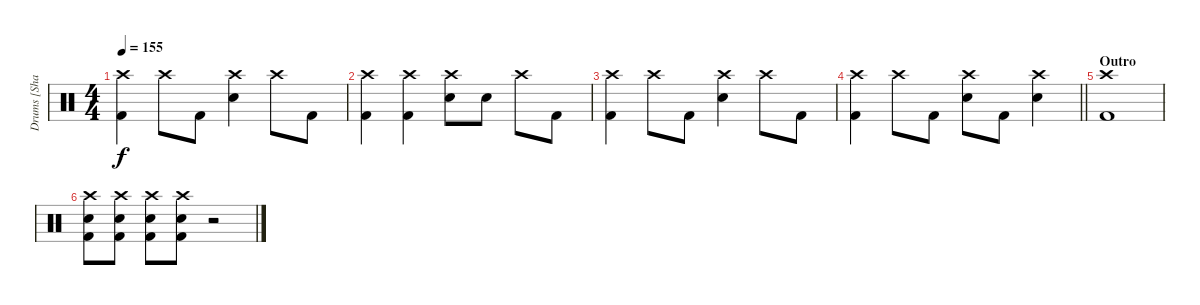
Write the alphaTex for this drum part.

\track ("Drums [Shannon Larkin]" "Drums [Sha") {instrument percussion}
\staff {score}
\articulation defaults
\ts (4 4)
\tempo 155
\clef neutral
\ks c
("Crash high (hit)" "Kick (hit) 2").4{dy f} "Crash high (hit)".8 "Kick (hit) 2".8 ("Crash high (hit)" "Electric Snare (hit)").4 "Crash high (hit)".8 "Kick (hit) 2".8 |
("Crash high (hit)" "Kick (hit) 2").4 ("Crash high (hit)" "Kick (hit) 2").4 ("Crash high (hit)" "Electric Snare (hit)").8 "Electric Snare (hit)".8 "Crash high (hit)".8 "Kick (hit) 2".8 |
("Crash high (hit)" "Kick (hit) 2").4 "Crash high (hit)".8 "Kick (hit) 2".8 ("Crash high (hit)" "Electric Snare (hit)").4 "Crash high (hit)".8 "Kick (hit) 2".8 |
\barLineRight lightlight
("Crash high (hit)" "Kick (hit) 2").4 "Crash high (hit)".8 "Kick (hit) 2".8 ("Crash high (hit)" "Electric Snare (hit)").8 "Kick (hit) 2".8 ("Crash high (hit)" "Electric Snare (hit)").4 |
\section ("" "Outro")
("Crash high (hit)" "Kick (hit) 2").1 |
("Crash high (hit)" "Electric Snare (hit)" "Kick (hit) 2").8 ("Crash high (hit)" "Electric Snare (hit)" "Kick (hit) 2").8 ("Crash high (hit)" "Electric Snare (hit)" "Kick (hit) 2").8 ("Crash high (hit)" "Electric Snare (hit)" "Kick (hit) 2").8 r.2
